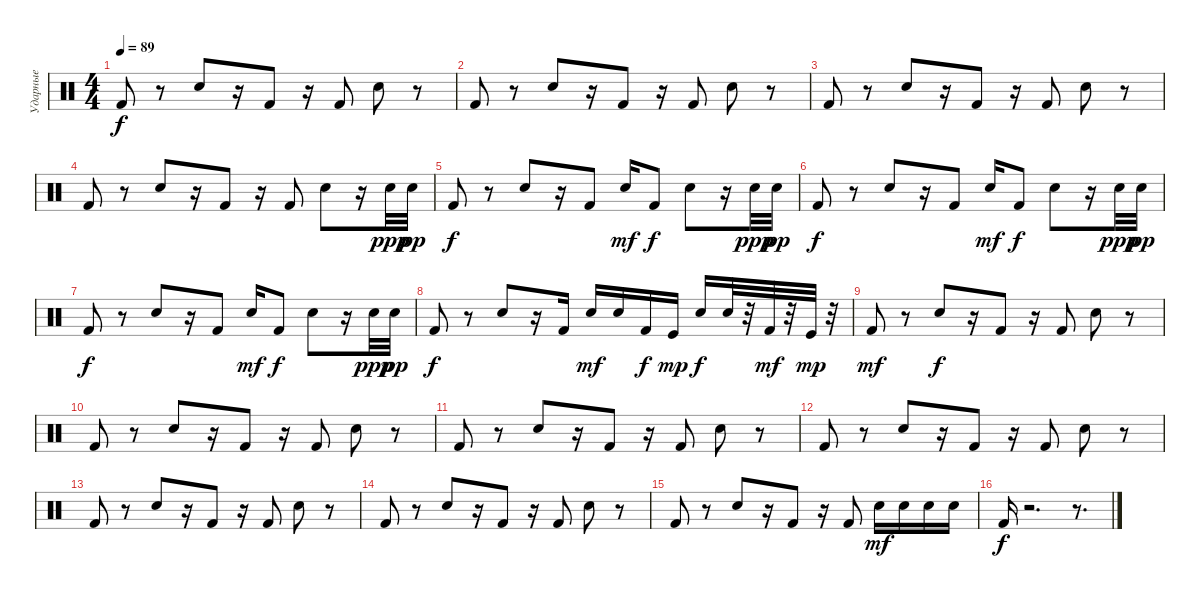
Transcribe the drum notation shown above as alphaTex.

\track ("Ударные " "Ударные ") {instrument percussion}
\staff {score}
\articulation defaults
\ts (4 4)
\tempo 89
\clef neutral
\ks c "Kick (hit) 2".8{dy f}
r.8 "Snare (hit) 2".8 r.16 "Kick (hit) 2".8 r.16 "Kick (hit) 2".8 "Snare (hit) 2".8 r.8 |
"Kick (hit) 2".8 r.8 "Snare (hit) 2".8 r.16 "Kick (hit) 2".8 r.16 "Kick (hit) 2".8 "Snare (hit) 2".8 r.8 |
"Kick (hit) 2".8 r.8 "Snare (hit) 2".8 r.16 "Kick (hit) 2".8 r.16 "Kick (hit) 2".8 "Snare (hit) 2".8 r.8 |
"Kick (hit) 2".8 r.8 "Snare (hit) 2".8 r.16 "Kick (hit) 2".8 r.16 "Kick (hit) 2".8 "Snare (hit) 2".8 r.16 "Snare (hit) 2".32{dy ppp} "Snare (hit) 2".32{dy pp} |
"Kick (hit) 2".8{dy f} r.8 "Snare (hit) 2".8 r.16 "Kick (hit) 2".8 "Snare (hit) 2".16{dy mf} "Kick (hit) 2".8{dy f} "Snare (hit) 2".8 r.16 "Snare (hit) 2".32{dy ppp} "Snare (hit) 2".32{dy pp} |
"Kick (hit) 2".8{dy f} r.8 "Snare (hit) 2".8 r.16 "Kick (hit) 2".8 "Snare (hit) 2".16{dy mf} "Kick (hit) 2".8{dy f} "Snare (hit) 2".8 r.16 "Snare (hit) 2".32{dy ppp} "Snare (hit) 2".32{dy pp} |
"Kick (hit) 2".8{dy f} r.8 "Snare (hit) 2".8 r.16 "Kick (hit) 2".8 "Snare (hit) 2".16{dy mf} "Kick (hit) 2".8{dy f} "Snare (hit) 2".8 r.16 "Snare (hit) 2".32{dy ppp} "Snare (hit) 2".32{dy pp} |
"Kick (hit) 2".8{dy f} r.8 "Snare (hit) 2".8 r.16 "Kick (hit) 2".16 "Snare (hit) 2".16{dy mf} "Snare (hit) 2".16 "Kick (hit) 2".16{dy f} "Kick (hit)".16{dy mp} "Snare (hit) 2".16{dy f} "Snare (hit) 2".32 r.32 "Kick (hit) 2".32{dy mf} r.32 "Kick (hit)".32{dy mp} r.32 |
"Kick (hit) 2".8{dy mf} r.8 "Snare (hit) 2".8{dy f} r.16 "Kick (hit) 2".8 r.16 "Kick (hit) 2".8 "Snare (hit) 2".8 r.8 |
"Kick (hit) 2".8 r.8 "Snare (hit) 2".8 r.16 "Kick (hit) 2".8 r.16 "Kick (hit) 2".8 "Snare (hit) 2".8 r.8 |
"Kick (hit) 2".8 r.8 "Snare (hit) 2".8 r.16 "Kick (hit) 2".8 r.16 "Kick (hit) 2".8 "Snare (hit) 2".8 r.8 |
"Kick (hit) 2".8 r.8 "Snare (hit) 2".8 r.16 "Kick (hit) 2".8 r.16 "Kick (hit) 2".8 "Snare (hit) 2".8 r.8 |
"Kick (hit) 2".8 r.8 "Snare (hit) 2".8 r.16 "Kick (hit) 2".8 r.16 "Kick (hit) 2".8 "Snare (hit) 2".8 r.8 |
"Kick (hit) 2".8 r.8 "Snare (hit) 2".8 r.16 "Kick (hit) 2".8 r.16 "Kick (hit) 2".8 "Snare (hit) 2".8 r.8 |
"Kick (hit) 2".8 r.8 "Snare (hit) 2".8 r.16 "Kick (hit) 2".8 r.16 "Kick (hit) 2".8 "Snare (hit) 2".16{dy mf} "Snare (hit) 2".16 "Snare (hit) 2".16 "Snare (hit) 2".16 |
"Kick (hit) 2".16{dy f} r.2{d} r.8{d}
